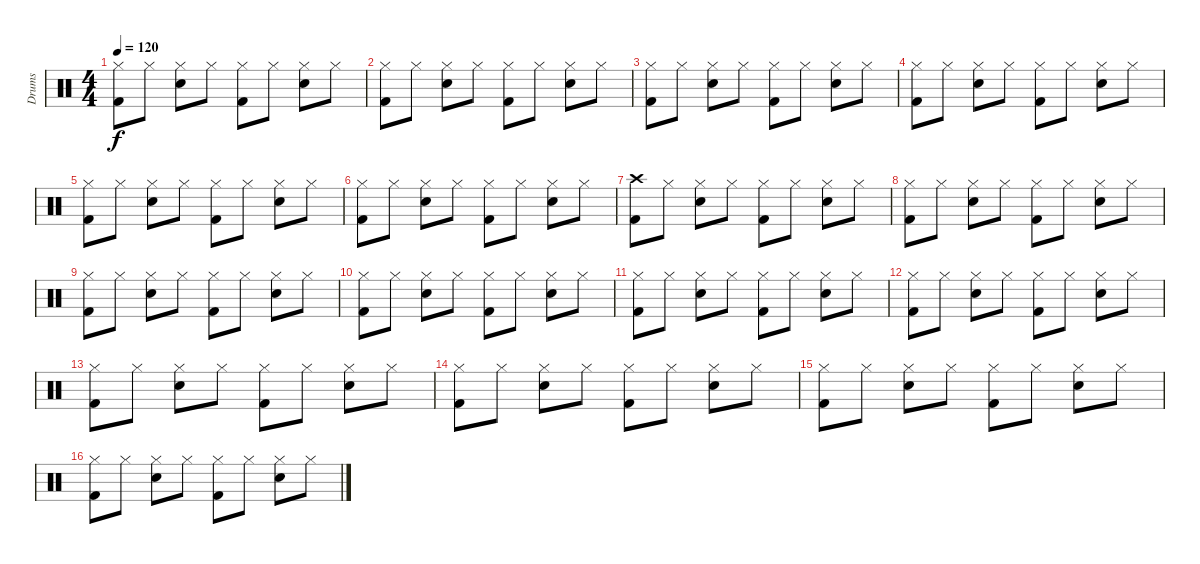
\track ("Drums" "Drums") {instrument percussion}
\staff {score}
\articulation defaults
\ts (4 4)
\tempo 120
\clef neutral
\ks c
("Hi-Hat (closed)" "Kick (hit) 2").8{dy f} "Hi-Hat (closed)".8 ("Hi-Hat (closed)" "Snare (hit) 2").8 "Hi-Hat (closed)".8 ("Hi-Hat (closed)" "Kick (hit) 2").8 "Hi-Hat (closed)".8 ("Hi-Hat (closed)" "Snare (hit) 2").8 "Hi-Hat (closed)".8 |
("Hi-Hat (closed)" "Kick (hit) 2").8 "Hi-Hat (closed)".8 ("Hi-Hat (closed)" "Snare (hit) 2").8 "Hi-Hat (closed)".8 ("Hi-Hat (closed)" "Kick (hit) 2").8 "Hi-Hat (closed)".8 ("Hi-Hat (closed)" "Snare (hit) 2").8 "Hi-Hat (closed)".8 |
("Hi-Hat (closed)" "Kick (hit) 2").8 "Hi-Hat (closed)".8 ("Hi-Hat (closed)" "Snare (hit) 2").8 "Hi-Hat (closed)".8 ("Hi-Hat (closed)" "Kick (hit) 2").8 "Hi-Hat (closed)".8 ("Hi-Hat (closed)" "Snare (hit) 2").8 "Hi-Hat (closed)".8 |
("Hi-Hat (closed)" "Kick (hit) 2").8 "Hi-Hat (closed)".8 ("Hi-Hat (closed)" "Snare (hit) 2").8 "Hi-Hat (closed)".8 ("Hi-Hat (closed)" "Kick (hit) 2").8 "Hi-Hat (closed)".8 ("Hi-Hat (closed)" "Snare (hit) 2").8 "Hi-Hat (closed)".8 |
("Hi-Hat (closed)" "Kick (hit) 2").8 "Hi-Hat (closed)".8 ("Hi-Hat (closed)" "Snare (hit) 2").8 "Hi-Hat (closed)".8 ("Hi-Hat (closed)" "Kick (hit) 2").8 "Hi-Hat (closed)".8 ("Hi-Hat (closed)" "Snare (hit) 2").8 "Hi-Hat (closed)".8 |
("Hi-Hat (closed)" "Kick (hit) 2").8 "Hi-Hat (closed)".8 ("Hi-Hat (closed)" "Snare (hit) 2").8 "Hi-Hat (closed)".8 ("Hi-Hat (closed)" "Kick (hit) 2").8 "Hi-Hat (closed)".8 ("Hi-Hat (closed)" "Snare (hit) 2").8 "Hi-Hat (closed)".8 |
("Crash high (hit)" "Kick (hit) 2").8 "Hi-Hat (closed)".8 ("Hi-Hat (closed)" "Snare (hit) 2").8 "Hi-Hat (closed)".8 ("Hi-Hat (closed)" "Kick (hit) 2").8 "Hi-Hat (closed)".8 ("Hi-Hat (closed)" "Snare (hit) 2").8 "Hi-Hat (closed)".8 |
("Hi-Hat (closed)" "Kick (hit) 2").8 "Hi-Hat (closed)".8 ("Hi-Hat (closed)" "Snare (hit) 2").8 "Hi-Hat (closed)".8 ("Hi-Hat (closed)" "Kick (hit) 2").8 "Hi-Hat (closed)".8 ("Hi-Hat (closed)" "Snare (hit) 2").8 "Hi-Hat (closed)".8 |
("Hi-Hat (closed)" "Kick (hit) 2").8 "Hi-Hat (closed)".8 ("Hi-Hat (closed)" "Snare (hit) 2").8 "Hi-Hat (closed)".8 ("Hi-Hat (closed)" "Kick (hit) 2").8 "Hi-Hat (closed)".8 ("Hi-Hat (closed)" "Snare (hit) 2").8 "Hi-Hat (closed)".8 |
("Hi-Hat (closed)" "Kick (hit) 2").8 "Hi-Hat (closed)".8 ("Hi-Hat (closed)" "Snare (hit) 2").8 "Hi-Hat (closed)".8 ("Hi-Hat (closed)" "Kick (hit) 2").8 "Hi-Hat (closed)".8 ("Hi-Hat (closed)" "Snare (hit) 2").8 "Hi-Hat (closed)".8 |
("Hi-Hat (closed)" "Kick (hit) 2").8 "Hi-Hat (closed)".8 ("Hi-Hat (closed)" "Snare (hit) 2").8 "Hi-Hat (closed)".8 ("Hi-Hat (closed)" "Kick (hit) 2").8 "Hi-Hat (closed)".8 ("Hi-Hat (closed)" "Snare (hit) 2").8 "Hi-Hat (closed)".8 |
("Hi-Hat (closed)" "Kick (hit) 2").8 "Hi-Hat (closed)".8 ("Hi-Hat (closed)" "Snare (hit) 2").8 "Hi-Hat (closed)".8 ("Hi-Hat (closed)" "Kick (hit) 2").8 "Hi-Hat (closed)".8 ("Hi-Hat (closed)" "Snare (hit) 2").8 "Hi-Hat (closed)".8 |
("Hi-Hat (closed)" "Kick (hit) 2").8 "Hi-Hat (closed)".8 ("Hi-Hat (closed)" "Snare (hit) 2").8 "Hi-Hat (closed)".8 ("Hi-Hat (closed)" "Kick (hit) 2").8 "Hi-Hat (closed)".8 ("Hi-Hat (closed)" "Snare (hit) 2").8 "Hi-Hat (closed)".8 |
("Hi-Hat (closed)" "Kick (hit) 2").8 "Hi-Hat (closed)".8 ("Hi-Hat (closed)" "Snare (hit) 2").8 "Hi-Hat (closed)".8 ("Hi-Hat (closed)" "Kick (hit) 2").8 "Hi-Hat (closed)".8 ("Hi-Hat (closed)" "Snare (hit) 2").8 "Hi-Hat (closed)".8 |
("Hi-Hat (closed)" "Kick (hit) 2").8 "Hi-Hat (closed)".8 ("Hi-Hat (closed)" "Snare (hit) 2").8 "Hi-Hat (closed)".8 ("Hi-Hat (closed)" "Kick (hit) 2").8 "Hi-Hat (closed)".8 ("Hi-Hat (closed)" "Snare (hit) 2").8 "Hi-Hat (closed)".8 |
("Hi-Hat (closed)" "Kick (hit) 2").8 "Hi-Hat (closed)".8 ("Hi-Hat (closed)" "Snare (hit) 2").8 "Hi-Hat (closed)".8 ("Hi-Hat (closed)" "Kick (hit) 2").8 "Hi-Hat (closed)".8 ("Hi-Hat (closed)" "Snare (hit) 2").8 "Hi-Hat (closed)".8
